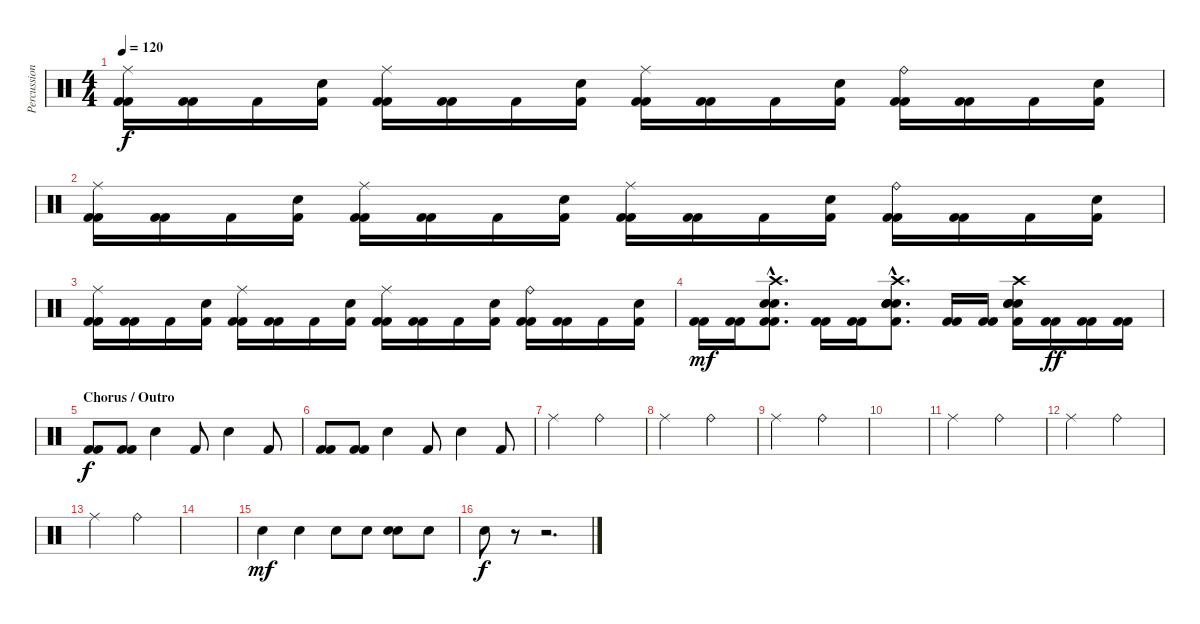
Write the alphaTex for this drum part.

\track ("Percussions" "Percussion") {instrument percussion}
\staff {score}
\articulation defaults
\ts (4 4)
\tempo 120
\clef neutral
\ks c
("Kick (hit) 2" "Kick (hit) 2" "Ride (middle)").16{dy f} ("Kick (hit) 2" "Kick (hit) 2").16 "Kick (hit) 2".16 ("Electric Snare (hit)" "Kick (hit) 2").16 ("Kick (hit) 2" "Kick (hit) 2" "Ride (middle)").16 ("Kick (hit) 2" "Kick (hit) 2").16 "Kick (hit) 2".16 ("Electric Snare (hit)" "Kick (hit) 2").16 ("Kick (hit) 2" "Kick (hit) 2" "Ride (middle)").16 ("Kick (hit) 2" "Kick (hit) 2").16 "Kick (hit) 2".16 ("Electric Snare (hit)" "Kick (hit) 2").16 ("Kick (hit) 2" "Kick (hit) 2" "Ride (bell)").16 ("Kick (hit) 2" "Kick (hit) 2").16 "Kick (hit) 2".16 ("Electric Snare (hit)" "Kick (hit) 2").16 |
("Kick (hit) 2" "Kick (hit) 2" "Ride (middle)").16 ("Kick (hit) 2" "Kick (hit) 2").16 "Kick (hit) 2".16 ("Electric Snare (hit)" "Kick (hit) 2").16 ("Kick (hit) 2" "Kick (hit) 2" "Ride (middle)").16 ("Kick (hit) 2" "Kick (hit) 2").16 "Kick (hit) 2".16 ("Electric Snare (hit)" "Kick (hit) 2").16 ("Kick (hit) 2" "Kick (hit) 2" "Ride (middle)").16 ("Kick (hit) 2" "Kick (hit) 2").16 "Kick (hit) 2".16 ("Electric Snare (hit)" "Kick (hit) 2").16 ("Kick (hit) 2" "Kick (hit) 2" "Ride (bell)").16 ("Kick (hit) 2" "Kick (hit) 2").16 "Kick (hit) 2".16 ("Electric Snare (hit)" "Kick (hit) 2").16 |
("Kick (hit) 2" "Kick (hit) 2" "Ride (middle)").16 ("Kick (hit) 2" "Kick (hit) 2").16 "Kick (hit) 2".16 ("Electric Snare (hit)" "Kick (hit) 2").16 ("Kick (hit) 2" "Kick (hit) 2" "Ride (middle)").16 ("Kick (hit) 2" "Kick (hit) 2").16 "Kick (hit) 2".16 ("Electric Snare (hit)" "Kick (hit) 2").16 ("Kick (hit) 2" "Kick (hit) 2" "Ride (middle)").16 ("Kick (hit) 2" "Kick (hit) 2").16 "Kick (hit) 2".16 ("Electric Snare (hit)" "Kick (hit) 2").16 ("Kick (hit) 2" "Kick (hit) 2" "Ride (bell)").16 ("Kick (hit) 2" "Kick (hit) 2").16 "Kick (hit) 2".16 ("Electric Snare (hit)" "Kick (hit) 2").16 |
("Kick (hit) 2" "Kick (hit) 2").16{dy mf} ("Kick (hit) 2" "Kick (hit) 2").16 ("Crash high (hit)"{hac} "Electric Snare (hit)"{hac} "Kick (hit) 2"{hac} "Electric Snare (hit)"{hac} "Kick (hit) 2"{hac}).8{d bd 120} ("Kick (hit) 2" "Kick (hit) 2").16 ("Kick (hit) 2" "Kick (hit) 2").16 ("Crash high (hit)"{hac} "Electric Snare (hit)"{hac} "Electric Snare (hit)"{hac} "Electric Snare (hit)"{hac} "Kick (hit) 2"{hac}).8{d bd 120} ("Kick (hit) 2" "Kick (hit) 2").16 ("Kick (hit) 2" "Kick (hit) 2").16 ("Crash high (hit)" "Electric Snare (hit)" "Electric Snare (hit)" "Electric Snare (hit)" "Kick (hit) 2").16{bd 120} ("Kick (hit) 2" "Kick (hit) 2").16{dy ff} ("Kick (hit) 2" "Kick (hit) 2").16{bd 120} ("Kick (hit) 2" "Kick (hit) 2").16 |
\section ("" "Chorus / Outro")
("Kick (hit) 2" "Kick (hit) 2").8{dy f volume 13} ("Kick (hit) 2" "Kick (hit) 2").8 "Electric Snare (hit)".4 "Kick (hit) 2".8 "Electric Snare (hit)".4 "Kick (hit) 2".8 |
("Kick (hit) 2" "Kick (hit) 2").8 ("Kick (hit) 2" "Kick (hit) 2").8 "Electric Snare (hit)".4 "Kick (hit) 2".8 "Electric Snare (hit)".4 "Kick (hit) 2".8 |
"Ride (middle)".2 "Ride (bell)".2 |
"Ride (middle)".2 "Ride (bell)".2 |
"Ride (middle)".2 "Ride (bell)".2 |
|
"Ride (middle)".2 "Ride (bell)".2 |
"Ride (middle)".2 "Ride (bell)".2 |
"Ride (middle)".2 "Ride (bell)".2 |
|
"Snare (hit) 2".4{dy mf} "Snare (hit) 2".4 "Snare (hit) 2".8 "Snare (hit) 2".8 ("Snare (hit) 2" "Snare (hit) 2").8{bd 240} "Snare (hit) 2".8 |
"Electric Snare (hit)"{x}.8{dy f} r.8 r.2{d}
